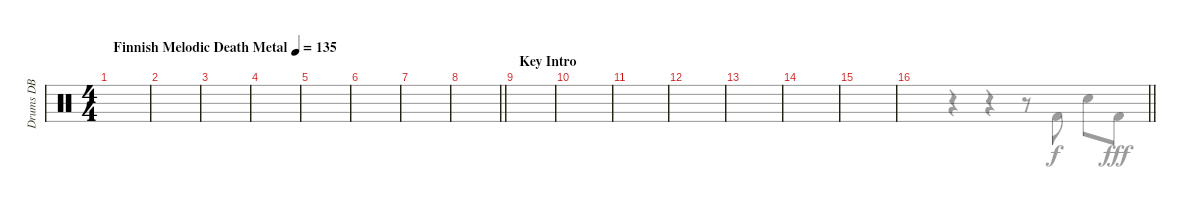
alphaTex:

\track ("Drums DB" "Drums DB") {instrument percussion}
\staff {score}
\articulation defaults
\voice
\ts (4 4)
\tempo (135 "Finnish Melodic Death Metal")
\clef neutral
\ks aminor
|
|
|
|
|
|
|
\barLineRight lightlight
|
\section ("" "Key Intro")
|
|
|
|
|
|
|
\barLineRight lightlight
\voice
\clef neutral
\ks aminor
|
|
|
|
|
|
|
\barLineRight lightlight
|
|
|
|
|
|
|
|
\barLineRight lightlight
r.4 r.4 r.8{beam merge} "Kick (hit) 2".8 "Snare (hit) 2".8{dy f} "Kick (hit) 2".8{dy fff}
